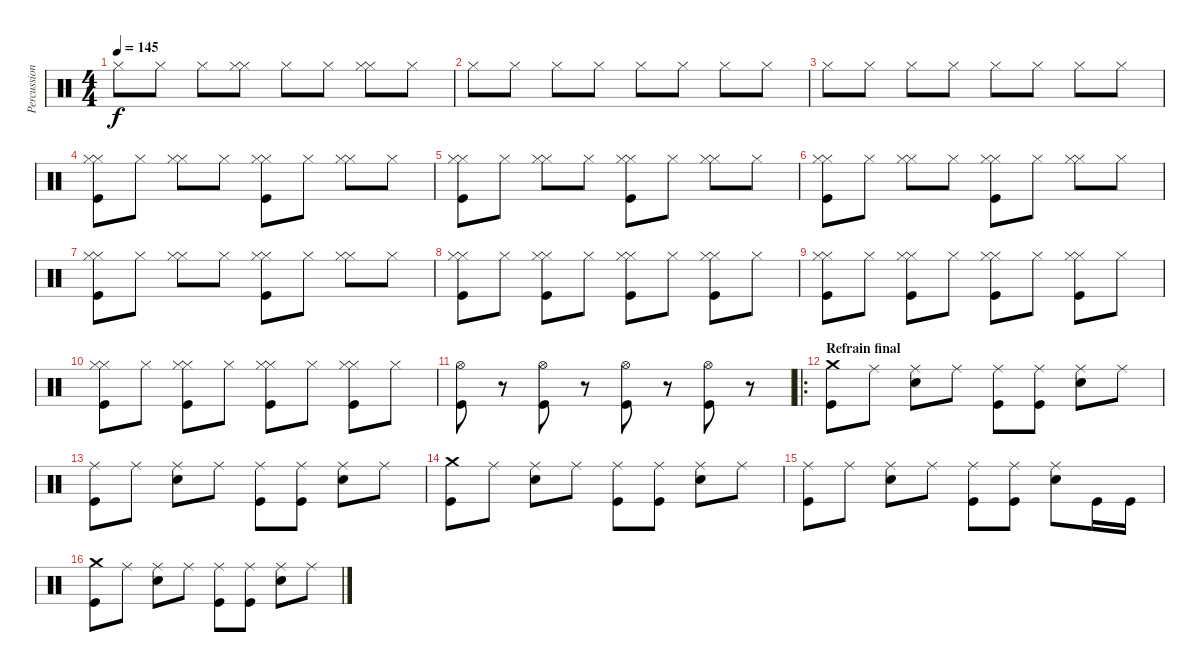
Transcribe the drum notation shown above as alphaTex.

\track ("Percussions" "Percussion") {instrument percussion}
\staff {score}
\articulation defaults
\ts (4 4)
\tempo 145
\clef neutral
\ks c "Hi-Hat (closed)".8{dy f} "Hi-Hat (closed)".8 "Hi-Hat (closed)".8
("Hi-Hat (closed)" "Hi-Hat (closed)").8 "Hi-Hat (closed)".8 "Hi-Hat (closed)".8 ("Hi-Hat (closed)" "Hi-Hat (closed)").8 "Hi-Hat (closed)".8 |
"Hi-Hat (closed)".8 "Hi-Hat (closed)".8 "Hi-Hat (closed)".8 "Hi-Hat (closed)".8 "Hi-Hat (closed)".8 "Hi-Hat (closed)".8 "Hi-Hat (closed)".8 "Hi-Hat (closed)".8 |
"Hi-Hat (closed)".8 "Hi-Hat (closed)".8 "Hi-Hat (closed)".8 "Hi-Hat (closed)".8 "Hi-Hat (closed)".8 "Hi-Hat (closed)".8 "Hi-Hat (closed)".8 "Hi-Hat (closed)".8 |
("Hi-Hat (closed)" "Hi-Hat (closed)" "Kick (hit)").8 "Hi-Hat (closed)".8 ("Hi-Hat (closed)" "Hi-Hat (closed)").8 "Hi-Hat (closed)".8 ("Hi-Hat (closed)" "Hi-Hat (closed)" "Kick (hit)").8 "Hi-Hat (closed)".8 ("Hi-Hat (closed)" "Hi-Hat (closed)").8 "Hi-Hat (closed)".8 |
("Hi-Hat (closed)" "Hi-Hat (closed)" "Kick (hit)").8 "Hi-Hat (closed)".8 ("Hi-Hat (closed)" "Hi-Hat (closed)").8 "Hi-Hat (closed)".8 ("Hi-Hat (closed)" "Hi-Hat (closed)" "Kick (hit)").8 "Hi-Hat (closed)".8 ("Hi-Hat (closed)" "Hi-Hat (closed)").8 "Hi-Hat (closed)".8 |
("Hi-Hat (closed)" "Hi-Hat (closed)" "Kick (hit)").8 "Hi-Hat (closed)".8 ("Hi-Hat (closed)" "Hi-Hat (closed)").8 "Hi-Hat (closed)".8 ("Hi-Hat (closed)" "Hi-Hat (closed)" "Kick (hit)").8 "Hi-Hat (closed)".8 ("Hi-Hat (closed)" "Hi-Hat (closed)").8 "Hi-Hat (closed)".8 |
("Hi-Hat (closed)" "Hi-Hat (closed)" "Kick (hit)").8 "Hi-Hat (closed)".8 ("Hi-Hat (closed)" "Hi-Hat (closed)").8 "Hi-Hat (closed)".8 ("Hi-Hat (closed)" "Hi-Hat (closed)" "Kick (hit)").8 "Hi-Hat (closed)".8 ("Hi-Hat (closed)" "Hi-Hat (closed)").8 "Hi-Hat (closed)".8 |
("Hi-Hat (closed)" "Hi-Hat (closed)" "Kick (hit)").8 "Hi-Hat (closed)".8 ("Hi-Hat (closed)" "Hi-Hat (closed)" "Kick (hit)").8 "Hi-Hat (closed)".8 ("Hi-Hat (closed)" "Hi-Hat (closed)" "Kick (hit)").8 "Hi-Hat (closed)".8 ("Hi-Hat (closed)" "Hi-Hat (closed)" "Kick (hit)").8 "Hi-Hat (closed)".8 |
("Hi-Hat (closed)" "Hi-Hat (closed)" "Kick (hit)").8 "Hi-Hat (closed)".8 ("Hi-Hat (closed)" "Hi-Hat (closed)" "Kick (hit)").8 "Hi-Hat (closed)".8 ("Hi-Hat (closed)" "Hi-Hat (closed)" "Kick (hit)").8 "Hi-Hat (closed)".8 ("Hi-Hat (closed)" "Hi-Hat (closed)" "Kick (hit)").8 "Hi-Hat (closed)".8 |
("Hi-Hat (closed)" "Hi-Hat (closed)" "Kick (hit)").8 "Hi-Hat (closed)".8 ("Hi-Hat (closed)" "Hi-Hat (closed)" "Kick (hit)").8 "Hi-Hat (closed)".8 ("Hi-Hat (closed)" "Hi-Hat (closed)" "Kick (hit)").8 "Hi-Hat (closed)".8 ("Hi-Hat (closed)" "Hi-Hat (closed)" "Kick (hit)").8 "Hi-Hat (closed)".8 |
("Hi-Hat (open)" "Kick (hit)").8 r.8 ("Hi-Hat (open)" "Kick (hit)").8 r.8 ("Hi-Hat (open)" "Kick (hit)").8 r.8 ("Hi-Hat (open)" "Kick (hit)").8 r.8 |
\ro
\section ("" "Refrain final")
("Crash medium (hit)" "Kick (hit)").8 "Ride (middle)".8 ("Ride (middle)" "Electric Snare (hit)").8 "Ride (middle)".8 ("Ride (middle)" "Kick (hit)").8 ("Ride (middle)" "Kick (hit)").8 ("Ride (middle)" "Electric Snare (hit)").8 "Ride (middle)".8 |
("Ride (middle)" "Kick (hit)").8 "Ride (middle)".8 ("Ride (middle)" "Electric Snare (hit)").8 "Ride (middle)".8 ("Ride (middle)" "Kick (hit)").8 ("Ride (middle)" "Kick (hit)").8 ("Ride (middle)" "Electric Snare (hit)").8 "Ride (middle)".8 |
("Crash medium (hit)" "Kick (hit)").8 "Ride (middle)".8 ("Ride (middle)" "Electric Snare (hit)").8 "Ride (middle)".8 ("Ride (middle)" "Kick (hit)").8 ("Ride (middle)" "Kick (hit)").8 ("Ride (middle)" "Electric Snare (hit)").8 "Ride (middle)".8 |
("Ride (middle)" "Kick (hit)").8 "Ride (middle)".8 ("Ride (middle)" "Electric Snare (hit)").8 "Ride (middle)".8 ("Ride (middle)" "Kick (hit)").8 ("Ride (middle)" "Kick (hit)").8 ("Ride (middle)" "Electric Snare (hit)").8 "Kick (hit)".16 "Kick (hit)".16 |
("Crash medium (hit)" "Kick (hit)").8 "Ride (middle)".8 ("Ride (middle)" "Electric Snare (hit)").8 "Ride (middle)".8 ("Ride (middle)" "Kick (hit)").8 ("Ride (middle)" "Kick (hit)").8 ("Ride (middle)" "Electric Snare (hit)").8 "Ride (middle)".8
